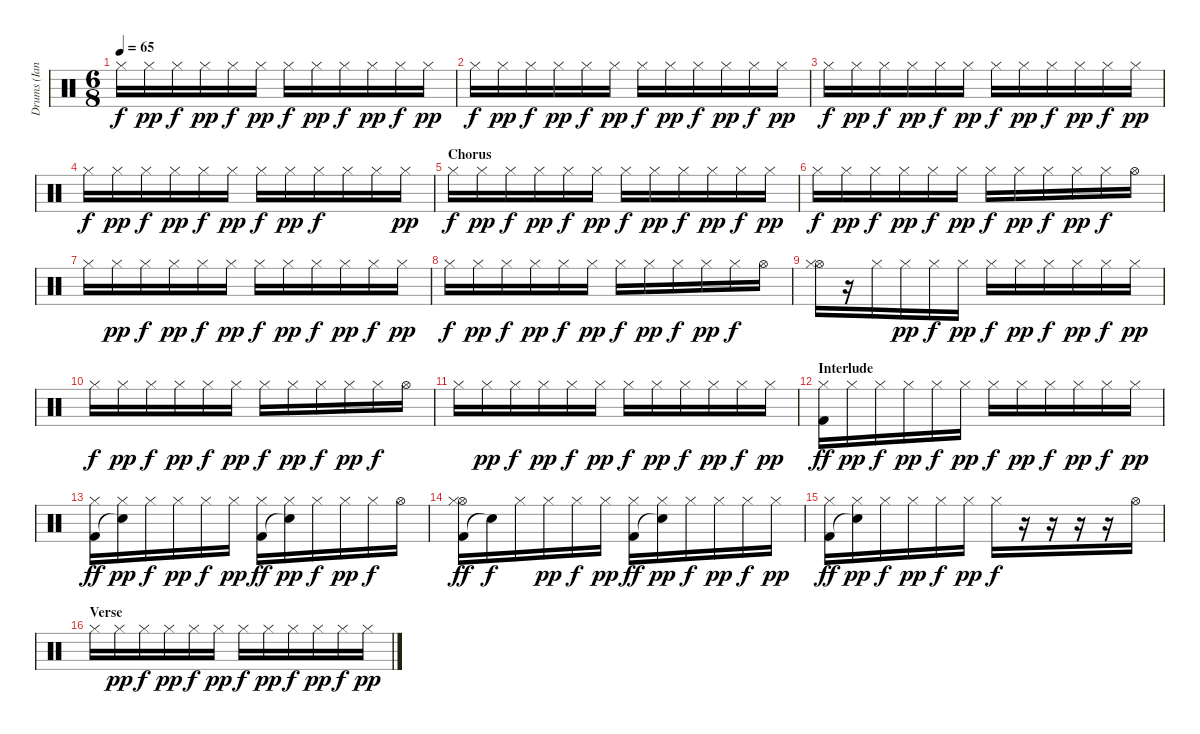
\track ("Drums (Ian Mosley)" "Drums (Ian") {instrument percussion}
\staff {score}
\articulation defaults
\ts (6 8)
\tempo 65
\clef neutral
\ks c "Hi-Hat (closed)".16{dy f} "Hi-Hat (closed)".16{dy pp} "Hi-Hat (closed)".16{dy f} "Hi-Hat (closed)".16{dy pp} "Hi-Hat (closed)".16{dy f} "Hi-Hat (closed)".16{dy pp} "Hi-Hat (closed)".16{dy f} "Hi-Hat (closed)".16{dy pp} "Hi-Hat (closed)".16{dy f} "Hi-Hat (closed)".16{dy pp} "Hi-Hat (closed)".16{dy f} "Hi-Hat (closed)".16{dy pp}
|
"Hi-Hat (closed)".16{dy f} "Hi-Hat (closed)".16{dy pp} "Hi-Hat (closed)".16{dy f} "Hi-Hat (closed)".16{dy pp} "Hi-Hat (closed)".16{dy f} "Hi-Hat (closed)".16{dy pp} "Hi-Hat (closed)".16{dy f} "Hi-Hat (closed)".16{dy pp} "Hi-Hat (closed)".16{dy f} "Hi-Hat (closed)".16{dy pp} "Hi-Hat (closed)".16{dy f} "Hi-Hat (closed)".16{dy pp} |
"Hi-Hat (closed)".16{dy f} "Hi-Hat (closed)".16{dy pp} "Hi-Hat (closed)".16{dy f} "Hi-Hat (closed)".16{dy pp} "Hi-Hat (closed)".16{dy f} "Hi-Hat (closed)".16{dy pp} "Hi-Hat (closed)".16{dy f} "Hi-Hat (closed)".16{dy pp} "Hi-Hat (closed)".16{dy f} "Hi-Hat (closed)".16{dy pp} "Hi-Hat (closed)".16{dy f} "Hi-Hat (closed)".16{dy pp} |
"Hi-Hat (closed)".16{dy f} "Hi-Hat (closed)".16{dy pp} "Hi-Hat (closed)".16{dy f} "Hi-Hat (closed)".16{dy pp} "Hi-Hat (closed)".16{dy f} "Hi-Hat (closed)".16{dy pp} "Hi-Hat (closed)".16{dy f} "Hi-Hat (closed)".16{dy pp} "Hi-Hat (closed)".16{dy f} "Hi-Hat (closed)".16 "Hi-Hat (closed)".16 "Hi-Hat (closed)".16{dy pp} |
\section ("" "Chorus")
"Hi-Hat (closed)".16{dy f} "Hi-Hat (closed)".16{dy pp} "Hi-Hat (closed)".16{dy f} "Hi-Hat (closed)".16{dy pp} "Hi-Hat (closed)".16{dy f} "Hi-Hat (closed)".16{dy pp} "Hi-Hat (closed)".16{dy f} "Hi-Hat (closed)".16{dy pp} "Hi-Hat (closed)".16{dy f} "Hi-Hat (closed)".16{dy pp} "Hi-Hat (closed)".16{dy f} "Hi-Hat (closed)".16{dy pp} |
"Hi-Hat (closed)".16{dy f} "Hi-Hat (closed)".16{dy pp} "Hi-Hat (closed)".16{dy f} "Hi-Hat (closed)".16{dy pp} "Hi-Hat (closed)".16{dy f} "Hi-Hat (closed)".16{dy pp} "Hi-Hat (closed)".16{dy f} "Hi-Hat (closed)".16{dy pp} "Hi-Hat (closed)".16{dy f} "Hi-Hat (closed)".16{dy pp} "Hi-Hat (closed)".16{dy f} "Hi-Hat (open)".16 |
"Hi-Hat (closed)".16 "Hi-Hat (closed)".16{dy pp} "Hi-Hat (closed)".16{dy f} "Hi-Hat (closed)".16{dy pp} "Hi-Hat (closed)".16{dy f} "Hi-Hat (closed)".16{dy pp} "Hi-Hat (closed)".16{dy f} "Hi-Hat (closed)".16{dy pp} "Hi-Hat (closed)".16{dy f} "Hi-Hat (closed)".16{dy pp} "Hi-Hat (closed)".16{dy f} "Hi-Hat (closed)".16{dy pp} |
"Hi-Hat (closed)".16{dy f} "Hi-Hat (closed)".16{dy pp} "Hi-Hat (closed)".16{dy f} "Hi-Hat (closed)".16{dy pp} "Hi-Hat (closed)".16{dy f} "Hi-Hat (closed)".16{dy pp} "Hi-Hat (closed)".16{dy f} "Hi-Hat (closed)".16{dy pp} "Hi-Hat (closed)".16{dy f} "Hi-Hat (closed)".16{dy pp} "Hi-Hat (closed)".16{dy f} "Hi-Hat (open)".16 |
("Hi-Hat (open)" "Hi-Hat (closed)").16 r.16 "Hi-Hat (closed)".16 "Hi-Hat (closed)".16{dy pp} "Hi-Hat (closed)".16{dy f} "Hi-Hat (closed)".16{dy pp} "Hi-Hat (closed)".16{dy f} "Hi-Hat (closed)".16{dy pp} "Hi-Hat (closed)".16{dy f} "Hi-Hat (closed)".16{dy pp} "Hi-Hat (closed)".16{dy f} "Hi-Hat (closed)".16{dy pp} |
"Hi-Hat (closed)".16{dy f} "Hi-Hat (closed)".16{dy pp} "Hi-Hat (closed)".16{dy f} "Hi-Hat (closed)".16{dy pp} "Hi-Hat (closed)".16{dy f} "Hi-Hat (closed)".16{dy pp} "Hi-Hat (closed)".16{dy f} "Hi-Hat (closed)".16{dy pp} "Hi-Hat (closed)".16{dy f} "Hi-Hat (closed)".16{dy pp} "Hi-Hat (closed)".16{dy f} "Hi-Hat (open)".16 |
"Hi-Hat (closed)".16 "Hi-Hat (closed)".16{dy pp} "Hi-Hat (closed)".16{dy f} "Hi-Hat (closed)".16{dy pp} "Hi-Hat (closed)".16{dy f} "Hi-Hat (closed)".16{dy pp} "Hi-Hat (closed)".16{dy f} "Hi-Hat (closed)".16{dy pp} "Hi-Hat (closed)".16{dy f} "Hi-Hat (closed)".16{dy pp} "Hi-Hat (closed)".16{dy f} "Hi-Hat (closed)".16{dy pp} |
\section ("" "Interlude")
("Kick (hit) 2" "Hi-Hat (closed)").16{dy ff} "Hi-Hat (closed)".16{dy pp} "Hi-Hat (closed)".16{dy f} "Hi-Hat (closed)".16{dy pp} "Hi-Hat (closed)".16{dy f} "Hi-Hat (closed)".16{dy pp} "Hi-Hat (closed)".16{dy f} "Hi-Hat (closed)".16{dy pp} "Hi-Hat (closed)".16{dy f} "Hi-Hat (closed)".16{dy pp} "Hi-Hat (closed)".16{dy f} "Hi-Hat (closed)".16{dy pp} |
("Kick (hit) 2" "Hi-Hat (closed)").16{dy ff} ("Snare (hit)"{t} "Hi-Hat (closed)").16{dy pp} "Hi-Hat (closed)".16{dy f} "Hi-Hat (closed)".16{dy pp} "Hi-Hat (closed)".16{dy f} "Hi-Hat (closed)".16{dy pp} ("Kick (hit) 2" "Hi-Hat (closed)").16{dy ff} ("Snare (hit)"{t} "Hi-Hat (closed)").16{dy pp} "Hi-Hat (closed)".16{dy f} "Hi-Hat (closed)".16{dy pp} "Hi-Hat (closed)".16{dy f} "Hi-Hat (open)".16 |
("Kick (hit) 2" "Hi-Hat (open)" "Hi-Hat (closed)").16{dy ff} "Snare (hit)"{t}.16{dy f} "Hi-Hat (closed)".16 "Hi-Hat (closed)".16{dy pp} "Hi-Hat (closed)".16{dy f} "Hi-Hat (closed)".16{dy pp} ("Kick (hit) 2" "Hi-Hat (closed)").16{dy ff} ("Snare (hit)"{t} "Hi-Hat (closed)").16{dy pp} "Hi-Hat (closed)".16{dy f} "Hi-Hat (closed)".16{dy pp} "Hi-Hat (closed)".16{dy f} "Hi-Hat (closed)".16{dy pp} |
("Kick (hit) 2" "Hi-Hat (closed)").16{dy ff} ("Snare (hit)"{t} "Hi-Hat (closed)").16{dy pp} "Hi-Hat (closed)".16{dy f} "Hi-Hat (closed)".16{dy pp} "Hi-Hat (closed)".16{dy f} "Hi-Hat (closed)".16{dy pp} "Hi-Hat (closed)".16{dy f} r.16 r.16 r.16 r.16 "Hi-Hat (open)".16 |
\section ("" "Verse")
"Hi-Hat (closed)".16 "Hi-Hat (closed)".16{dy pp} "Hi-Hat (closed)".16{dy f} "Hi-Hat (closed)".16{dy pp} "Hi-Hat (closed)".16{dy f} "Hi-Hat (closed)".16{dy pp} "Hi-Hat (closed)".16{dy f} "Hi-Hat (closed)".16{dy pp} "Hi-Hat (closed)".16{dy f} "Hi-Hat (closed)".16{dy pp} "Hi-Hat (closed)".16{dy f} "Hi-Hat (closed)".16{dy pp}
